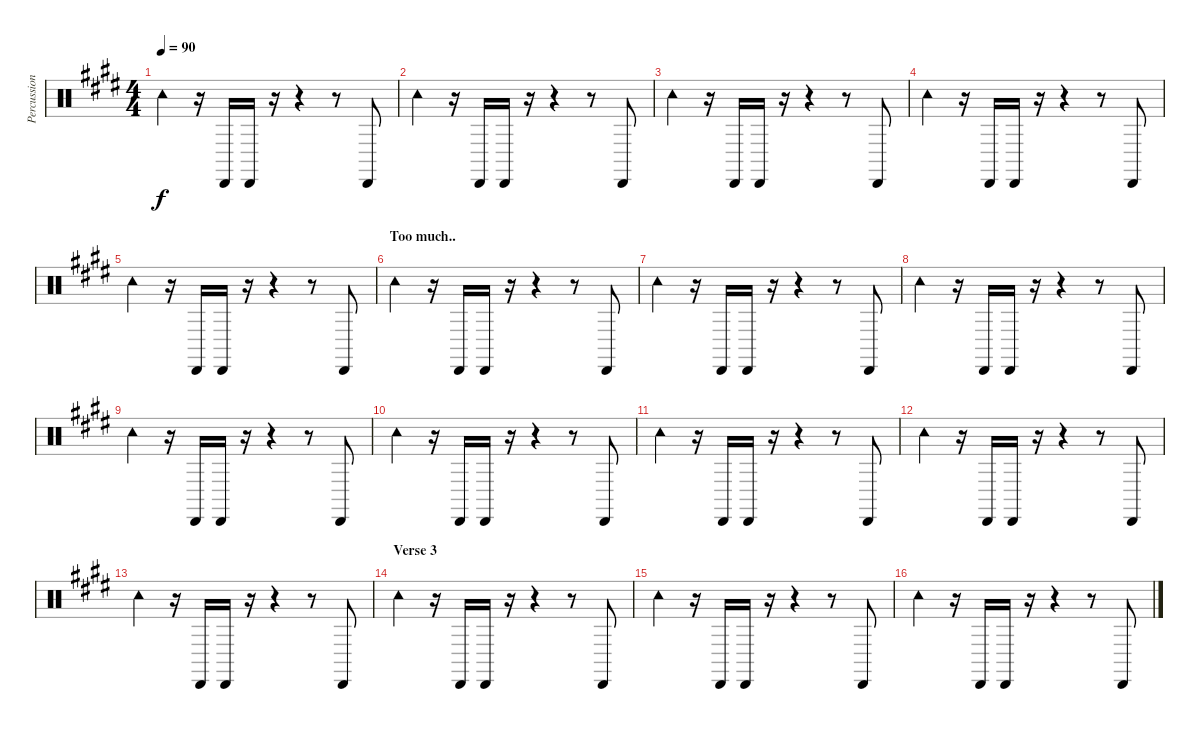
\track ("Percussion" "Percussion") {instrument percussion}
\staff {score}
\articulation defaults
\ts (4 4)
\tempo 90
\clef neutral
\ks e "Tambourine (hit)".4{dy f}
r.16 "Cabasa (hit)".16 "Cabasa (hit)".16 r.16 r.4 r.8 "Cabasa (hit)".8 |
"Tambourine (hit)".4 r.16 "Cabasa (hit)".16 "Cabasa (hit)".16 r.16 r.4 r.8 "Cabasa (hit)".8 |
"Tambourine (hit)".4 r.16 "Cabasa (hit)".16 "Cabasa (hit)".16 r.16 r.4 r.8 "Cabasa (hit)".8 |
"Tambourine (hit)".4 r.16 "Cabasa (hit)".16 "Cabasa (hit)".16 r.16 r.4 r.8 "Cabasa (hit)".8 |
"Tambourine (hit)".4 r.16 "Cabasa (hit)".16 "Cabasa (hit)".16 r.16 r.4 r.8 "Cabasa (hit)".8 |
\section ("" "Too much..")
"Tambourine (hit)".4 r.16 "Cabasa (hit)".16 "Cabasa (hit)".16 r.16 r.4 r.8 "Cabasa (hit)".8 |
"Tambourine (hit)".4 r.16 "Cabasa (hit)".16 "Cabasa (hit)".16 r.16 r.4 r.8 "Cabasa (hit)".8 |
"Tambourine (hit)".4 r.16 "Cabasa (hit)".16 "Cabasa (hit)".16 r.16 r.4 r.8 "Cabasa (hit)".8 |
"Tambourine (hit)".4 r.16 "Cabasa (hit)".16 "Cabasa (hit)".16 r.16 r.4 r.8 "Cabasa (hit)".8 |
"Tambourine (hit)".4 r.16 "Cabasa (hit)".16 "Cabasa (hit)".16 r.16 r.4 r.8 "Cabasa (hit)".8 |
"Tambourine (hit)".4 r.16 "Cabasa (hit)".16 "Cabasa (hit)".16 r.16 r.4 r.8 "Cabasa (hit)".8 |
"Tambourine (hit)".4 r.16 "Cabasa (hit)".16 "Cabasa (hit)".16 r.16 r.4 r.8 "Cabasa (hit)".8 |
"Tambourine (hit)".4 r.16 "Cabasa (hit)".16 "Cabasa (hit)".16 r.16 r.4 r.8 "Cabasa (hit)".8 |
\section ("" "Verse 3")
"Tambourine (hit)".4 r.16 "Cabasa (hit)".16 "Cabasa (hit)".16 r.16 r.4 r.8 "Cabasa (hit)".8 |
"Tambourine (hit)".4 r.16 "Cabasa (hit)".16 "Cabasa (hit)".16 r.16 r.4 r.8 "Cabasa (hit)".8 |
"Tambourine (hit)".4 r.16 "Cabasa (hit)".16 "Cabasa (hit)".16 r.16 r.4 r.8 "Cabasa (hit)".8
